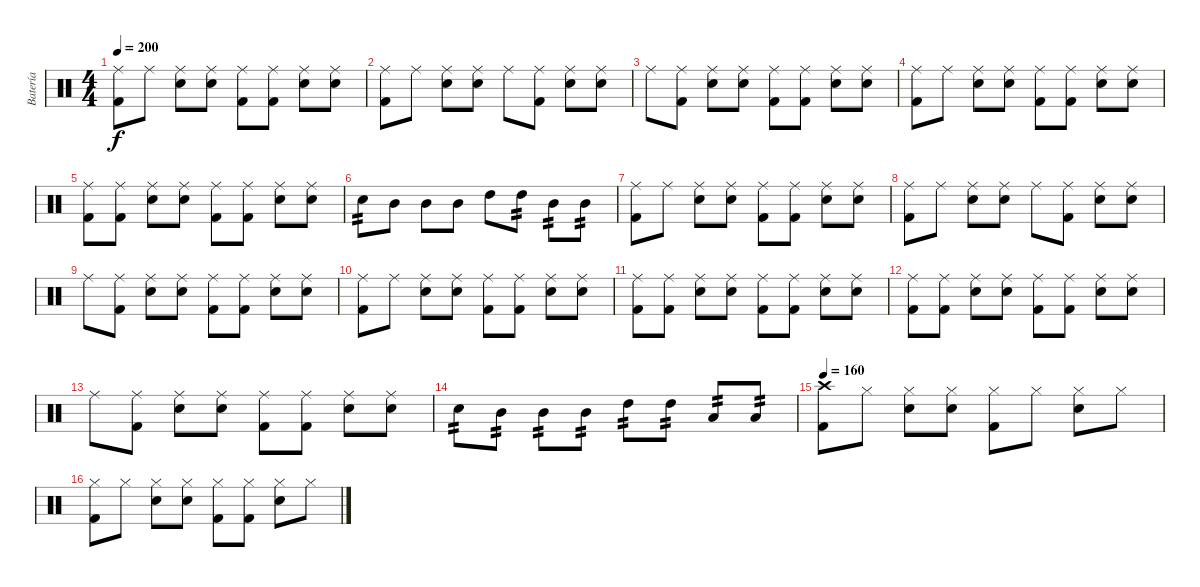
\track ("Batería" "Batería") {instrument percussion}
\staff {score}
\articulation defaults
\ts (4 4)
\tempo 200
\clef neutral
\ks c
("Ride (middle)" "Kick (hit) 2").8{dy f} "Ride (middle)".8 ("Ride (middle)" "Electric Snare (hit)").8 ("Ride (middle)" "Electric Snare (hit)").8 ("Ride (middle)" "Kick (hit) 2").8 ("Ride (middle)" "Kick (hit) 2").8 ("Ride (middle)" "Electric Snare (hit)").8 ("Ride (middle)" "Electric Snare (hit)").8 |
("Ride (middle)" "Kick (hit) 2").8 "Ride (middle)".8 ("Ride (middle)" "Electric Snare (hit)").8 ("Ride (middle)" "Electric Snare (hit)").8 "Ride (middle)".8 ("Ride (middle)" "Kick (hit) 2").8 ("Ride (middle)" "Electric Snare (hit)").8 ("Ride (middle)" "Electric Snare (hit)").8 |
"Ride (middle)".8 ("Ride (middle)" "Kick (hit) 2").8 ("Ride (middle)" "Electric Snare (hit)").8 ("Ride (middle)" "Electric Snare (hit)").8 ("Ride (middle)" "Kick (hit) 2").8 ("Ride (middle)" "Kick (hit) 2").8 ("Ride (middle)" "Electric Snare (hit)").8 ("Ride (middle)" "Electric Snare (hit)").8 |
("Ride (middle)" "Kick (hit) 2").8 "Ride (middle)".8 ("Ride (middle)" "Electric Snare (hit)").8 ("Ride (middle)" "Electric Snare (hit)").8 ("Ride (middle)" "Kick (hit) 2").8 ("Ride (middle)" "Kick (hit) 2").8 ("Ride (middle)" "Electric Snare (hit)").8 ("Ride (middle)" "Electric Snare (hit)").8 |
("Ride (middle)" "Kick (hit) 2").8 ("Ride (middle)" "Kick (hit) 2").8 ("Ride (middle)" "Electric Snare (hit)").8 ("Ride (middle)" "Electric Snare (hit)").8 ("Ride (middle)" "Kick (hit) 2").8 ("Ride (middle)" "Kick (hit) 2").8 ("Ride (middle)" "Electric Snare (hit)").8 ("Ride (middle)" "Electric Snare (hit)").8 |
"Electric Snare (hit)".8{tp 2} "Mid Tom (hit)".8 "Mid Tom (hit)".8 "Mid Tom (hit)".8 "High Tom (hit)".8 "High Tom (hit)".8{tp 2} "Mid Tom (hit)".8{tp 2} "Mid Tom (hit)".8{tp 2} |
("Ride (middle)" "Kick (hit) 2").8 "Ride (middle)".8 ("Ride (middle)" "Electric Snare (hit)").8 ("Ride (middle)" "Electric Snare (hit)").8 ("Ride (middle)" "Kick (hit) 2").8 ("Ride (middle)" "Kick (hit) 2").8 ("Ride (middle)" "Electric Snare (hit)").8 ("Ride (middle)" "Electric Snare (hit)").8 |
("Ride (middle)" "Kick (hit) 2").8 "Ride (middle)".8 ("Ride (middle)" "Electric Snare (hit)").8 ("Ride (middle)" "Electric Snare (hit)").8 "Ride (middle)".8 ("Ride (middle)" "Kick (hit) 2").8 ("Ride (middle)" "Electric Snare (hit)").8 ("Ride (middle)" "Electric Snare (hit)").8 |
"Ride (middle)".8 ("Ride (middle)" "Kick (hit) 2").8 ("Ride (middle)" "Electric Snare (hit)").8 ("Ride (middle)" "Electric Snare (hit)").8 ("Ride (middle)" "Kick (hit) 2").8 ("Ride (middle)" "Kick (hit) 2").8 ("Ride (middle)" "Electric Snare (hit)").8 ("Ride (middle)" "Electric Snare (hit)").8 |
("Ride (middle)" "Kick (hit) 2").8 "Ride (middle)".8 ("Ride (middle)" "Electric Snare (hit)").8 ("Ride (middle)" "Electric Snare (hit)").8 ("Ride (middle)" "Kick (hit) 2").8 ("Ride (middle)" "Kick (hit) 2").8 ("Ride (middle)" "Electric Snare (hit)").8 ("Ride (middle)" "Electric Snare (hit)").8 |
("Ride (middle)" "Kick (hit) 2").8 ("Ride (middle)" "Kick (hit) 2").8 ("Ride (middle)" "Electric Snare (hit)").8 ("Ride (middle)" "Electric Snare (hit)").8 ("Ride (middle)" "Kick (hit) 2").8 ("Ride (middle)" "Kick (hit) 2").8 ("Ride (middle)" "Electric Snare (hit)").8 ("Ride (middle)" "Electric Snare (hit)").8 |
("Ride (middle)" "Kick (hit) 2").8 ("Ride (middle)" "Kick (hit) 2").8 ("Ride (middle)" "Electric Snare (hit)").8 ("Ride (middle)" "Electric Snare (hit)").8 ("Ride (middle)" "Kick (hit) 2").8 ("Ride (middle)" "Kick (hit) 2").8 ("Ride (middle)" "Electric Snare (hit)").8 ("Ride (middle)" "Electric Snare (hit)").8 |
"Ride (middle)".8 ("Ride (middle)" "Kick (hit) 2").8 ("Ride (middle)" "Electric Snare (hit)").8 ("Ride (middle)" "Electric Snare (hit)").8 ("Ride (middle)" "Kick (hit) 2").8 ("Ride (middle)" "Kick (hit) 2").8 ("Ride (middle)" "Electric Snare (hit)").8 ("Ride (middle)" "Electric Snare (hit)").8 |
"Electric Snare (hit)".8{tp 2} "Mid Tom (hit)".8{tp 2} "Mid Tom (hit)".8{tp 2} "Mid Tom (hit)".8{tp 2} "High Tom (hit)".8{tp 2} "High Tom (hit)".8{tp 2} "Low Tom (hit)".8{tp 2} "Low Tom (hit)".8{tp 2} |
\tempo 160
("Crash high (hit)" "Kick (hit) 2").8 "Hi-Hat (closed)".8 ("Hi-Hat (closed)" "Electric Snare (hit)").8 ("Hi-Hat (closed)" "Electric Snare (hit)").8 ("Hi-Hat (closed)" "Kick (hit) 2").8 "Hi-Hat (closed)".8 ("Hi-Hat (closed)" "Electric Snare (hit)").8 "Hi-Hat (closed)".8 |
("Hi-Hat (closed)" "Kick (hit) 2").8 "Hi-Hat (closed)".8 ("Hi-Hat (closed)" "Electric Snare (hit)").8 ("Hi-Hat (closed)" "Electric Snare (hit)").8 ("Hi-Hat (closed)" "Kick (hit) 2").8 ("Hi-Hat (closed)" "Kick (hit) 2").8 ("Hi-Hat (closed)" "Electric Snare (hit)").8 "Hi-Hat (closed)".8
